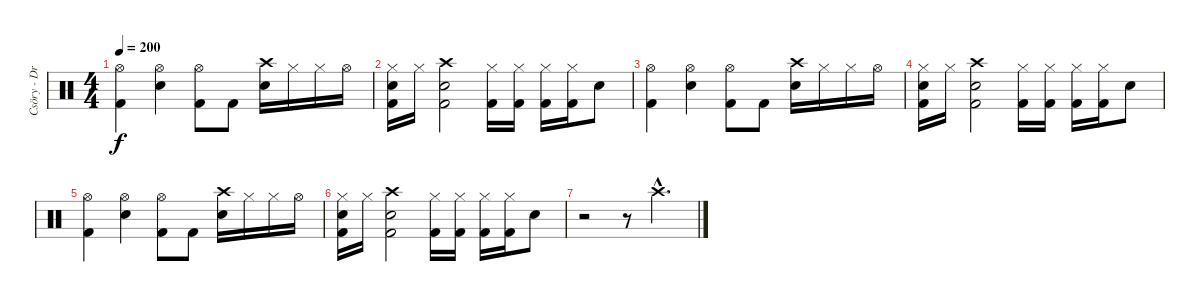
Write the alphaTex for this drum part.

\track ("Csöry - DrumZ" "Csöry - Dr") {instrument percussion}
\staff {score}
\articulation defaults
\ts (4 4)
\tempo 200
\clef neutral
\ks c
("Hi-Hat (open)" "Kick (hit) 2").4{dy f} ("Hi-Hat (open)" "Snare (hit) 2").4 ("Hi-Hat (open)" "Kick (hit) 2").8 "Kick (hit) 2".8 ("Crash high (hit)" "Snare (hit) 2").16 "Hi-Hat (closed)".16 "Hi-Hat (closed)".16 "Hi-Hat (open)".16 |
("Hi-Hat (closed)" "Snare (hit) 2" "Kick (hit) 2").16 "Hi-Hat (closed)".16 ("Crash high (hit)" "Snare (hit) 2" "Kick (hit) 2").2 ("Hi-Hat (closed)" "Kick (hit) 2").16 ("Hi-Hat (closed)" "Kick (hit) 2").16 ("Hi-Hat (closed)" "Kick (hit) 2").16 ("Hi-Hat (closed)" "Kick (hit) 2").16 "Snare (hit) 2".8 |
("Hi-Hat (open)" "Kick (hit) 2").4 ("Hi-Hat (open)" "Snare (hit) 2").4 ("Hi-Hat (open)" "Kick (hit) 2").8 "Kick (hit) 2".8 ("Crash high (hit)" "Snare (hit) 2").16 "Hi-Hat (closed)".16 "Hi-Hat (closed)".16 "Hi-Hat (open)".16 |
("Hi-Hat (closed)" "Snare (hit) 2" "Kick (hit) 2").16 "Hi-Hat (closed)".16 ("Crash high (hit)" "Snare (hit) 2" "Kick (hit) 2").2 ("Hi-Hat (closed)" "Kick (hit) 2").16 ("Hi-Hat (closed)" "Kick (hit) 2").16 ("Hi-Hat (closed)" "Kick (hit) 2").16 ("Hi-Hat (closed)" "Kick (hit) 2").16 "Snare (hit) 2".8 |
("Hi-Hat (open)" "Kick (hit) 2").4 ("Hi-Hat (open)" "Snare (hit) 2").4 ("Hi-Hat (open)" "Kick (hit) 2").8 "Kick (hit) 2".8 ("Crash high (hit)" "Snare (hit) 2").16 "Hi-Hat (closed)".16 "Hi-Hat (closed)".16 "Hi-Hat (open)".16 |
("Hi-Hat (closed)" "Snare (hit) 2" "Kick (hit) 2").16 "Hi-Hat (closed)".16 ("Crash high (hit)" "Snare (hit) 2" "Kick (hit) 2").2 ("Hi-Hat (closed)" "Kick (hit) 2").16 ("Hi-Hat (closed)" "Kick (hit) 2").16 ("Hi-Hat (closed)" "Kick (hit) 2").16 ("Hi-Hat (closed)" "Kick (hit) 2").16 "Snare (hit) 2".8 |
r.2 r.8 "Crash high (hit)"{hac}.4{d}
